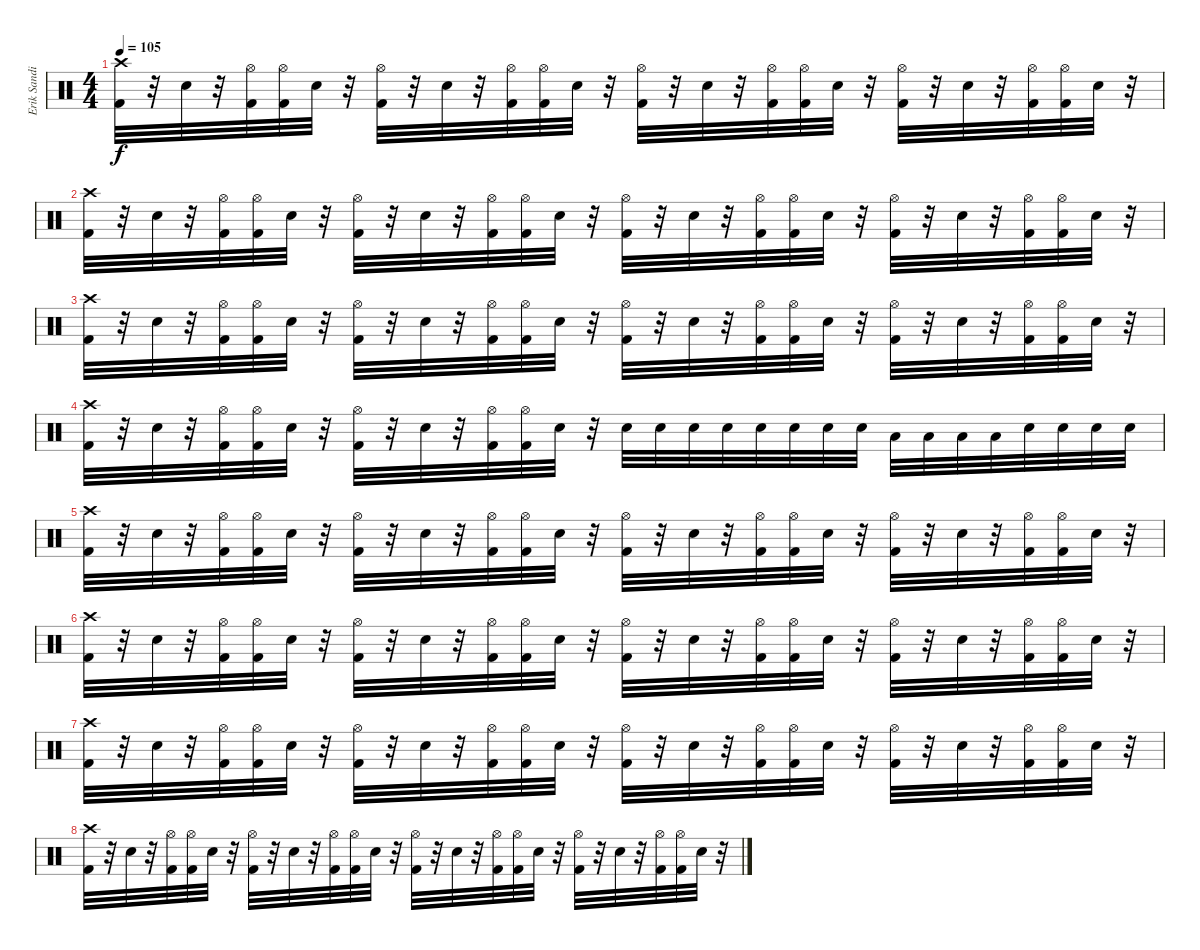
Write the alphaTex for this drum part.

\track ("Erik Sandin" "Erik Sandi") {instrument percussion}
\staff {score}
\articulation defaults
\ts (4 4)
\tempo 105
\clef neutral
\ks c
("Crash high (hit)" "Kick (hit) 2").32{dy f} r.32 "Snare (hit) 2".32 r.32 ("Hi-Hat (open)" "Kick (hit) 2").32 ("Hi-Hat (open)" "Kick (hit) 2").32 "Snare (hit) 2".32 r.32 ("Hi-Hat (open)" "Kick (hit) 2").32 r.32 "Snare (hit) 2".32 r.32 ("Hi-Hat (open)" "Kick (hit) 2").32 ("Hi-Hat (open)" "Kick (hit) 2").32 "Snare (hit) 2".32 r.32 ("Hi-Hat (open)" "Kick (hit) 2").32 r.32 "Snare (hit) 2".32 r.32 ("Hi-Hat (open)" "Kick (hit) 2").32 ("Hi-Hat (open)" "Kick (hit) 2").32 "Snare (hit) 2".32 r.32 ("Hi-Hat (open)" "Kick (hit) 2").32 r.32 "Snare (hit) 2".32 r.32 ("Hi-Hat (open)" "Kick (hit) 2").32 ("Hi-Hat (open)" "Kick (hit) 2").32 "Snare (hit) 2".32 r.32 |
("Crash high (hit)" "Kick (hit) 2").32 r.32 "Snare (hit) 2".32 r.32 ("Hi-Hat (open)" "Kick (hit) 2").32 ("Hi-Hat (open)" "Kick (hit) 2").32 "Snare (hit) 2".32 r.32 ("Hi-Hat (open)" "Kick (hit) 2").32 r.32 "Snare (hit) 2".32 r.32 ("Hi-Hat (open)" "Kick (hit) 2").32 ("Hi-Hat (open)" "Kick (hit) 2").32 "Snare (hit) 2".32 r.32 ("Hi-Hat (open)" "Kick (hit) 2").32 r.32 "Snare (hit) 2".32 r.32 ("Hi-Hat (open)" "Kick (hit) 2").32 ("Hi-Hat (open)" "Kick (hit) 2").32 "Snare (hit) 2".32 r.32 ("Hi-Hat (open)" "Kick (hit) 2").32 r.32 "Snare (hit) 2".32 r.32 ("Hi-Hat (open)" "Kick (hit) 2").32 ("Hi-Hat (open)" "Kick (hit) 2").32 "Snare (hit) 2".32 r.32 |
("Crash high (hit)" "Kick (hit) 2").32 r.32 "Snare (hit) 2".32 r.32 ("Hi-Hat (open)" "Kick (hit) 2").32 ("Hi-Hat (open)" "Kick (hit) 2").32 "Snare (hit) 2".32 r.32 ("Hi-Hat (open)" "Kick (hit) 2").32 r.32 "Snare (hit) 2".32 r.32 ("Hi-Hat (open)" "Kick (hit) 2").32 ("Hi-Hat (open)" "Kick (hit) 2").32 "Snare (hit) 2".32 r.32 ("Hi-Hat (open)" "Kick (hit) 2").32 r.32 "Snare (hit) 2".32 r.32 ("Hi-Hat (open)" "Kick (hit) 2").32 ("Hi-Hat (open)" "Kick (hit) 2").32 "Snare (hit) 2".32 r.32 ("Hi-Hat (open)" "Kick (hit) 2").32 r.32 "Snare (hit) 2".32 r.32 ("Hi-Hat (open)" "Kick (hit) 2").32 ("Hi-Hat (open)" "Kick (hit) 2").32 "Snare (hit) 2".32 r.32 |
("Crash high (hit)" "Kick (hit) 2").32 r.32 "Snare (hit) 2".32 r.32 ("Hi-Hat (open)" "Kick (hit) 2").32 ("Hi-Hat (open)" "Kick (hit) 2").32 "Snare (hit) 2".32 r.32 ("Hi-Hat (open)" "Kick (hit) 2").32 r.32 "Snare (hit) 2".32 r.32 ("Hi-Hat (open)" "Kick (hit) 2").32 ("Hi-Hat (open)" "Kick (hit) 2").32 "Snare (hit) 2".32 r.32 "Snare (hit) 2".32 "Snare (hit) 2".32 "Snare (hit) 2".32 "Snare (hit) 2".32 "Snare (hit) 2".32 "Snare (hit) 2".32 "Snare (hit) 2".32 "Snare (hit) 2".32 "Low Tom (hit)".32 "Low Tom (hit)".32 "Low Tom (hit)".32 "Low Tom (hit)".32 "Snare (hit) 2".32 "Snare (hit) 2".32 "Snare (hit) 2".32 "Snare (hit) 2".32 |
("Crash high (hit)" "Kick (hit) 2").32 r.32 "Snare (hit) 2".32 r.32 ("Hi-Hat (open)" "Kick (hit) 2").32 ("Hi-Hat (open)" "Kick (hit) 2").32 "Snare (hit) 2".32 r.32 ("Hi-Hat (open)" "Kick (hit) 2").32 r.32 "Snare (hit) 2".32 r.32 ("Hi-Hat (open)" "Kick (hit) 2").32 ("Hi-Hat (open)" "Kick (hit) 2").32 "Snare (hit) 2".32 r.32 ("Hi-Hat (open)" "Kick (hit) 2").32 r.32 "Snare (hit) 2".32 r.32 ("Hi-Hat (open)" "Kick (hit) 2").32 ("Hi-Hat (open)" "Kick (hit) 2").32 "Snare (hit) 2".32 r.32 ("Hi-Hat (open)" "Kick (hit) 2").32 r.32 "Snare (hit) 2".32 r.32 ("Hi-Hat (open)" "Kick (hit) 2").32 ("Hi-Hat (open)" "Kick (hit) 2").32 "Snare (hit) 2".32 r.32 |
("Crash high (hit)" "Kick (hit) 2").32 r.32 "Snare (hit) 2".32 r.32 ("Hi-Hat (open)" "Kick (hit) 2").32 ("Hi-Hat (open)" "Kick (hit) 2").32 "Snare (hit) 2".32 r.32 ("Hi-Hat (open)" "Kick (hit) 2").32 r.32 "Snare (hit) 2".32 r.32 ("Hi-Hat (open)" "Kick (hit) 2").32 ("Hi-Hat (open)" "Kick (hit) 2").32 "Snare (hit) 2".32 r.32 ("Hi-Hat (open)" "Kick (hit) 2").32 r.32 "Snare (hit) 2".32 r.32 ("Hi-Hat (open)" "Kick (hit) 2").32 ("Hi-Hat (open)" "Kick (hit) 2").32 "Snare (hit) 2".32 r.32 ("Hi-Hat (open)" "Kick (hit) 2").32 r.32 "Snare (hit) 2".32 r.32 ("Hi-Hat (open)" "Kick (hit) 2").32 ("Hi-Hat (open)" "Kick (hit) 2").32 "Snare (hit) 2".32 r.32 |
("Crash high (hit)" "Kick (hit) 2").32 r.32 "Snare (hit) 2".32 r.32 ("Hi-Hat (open)" "Kick (hit) 2").32 ("Hi-Hat (open)" "Kick (hit) 2").32 "Snare (hit) 2".32 r.32 ("Hi-Hat (open)" "Kick (hit) 2").32 r.32 "Snare (hit) 2".32 r.32 ("Hi-Hat (open)" "Kick (hit) 2").32 ("Hi-Hat (open)" "Kick (hit) 2").32 "Snare (hit) 2".32 r.32 ("Hi-Hat (open)" "Kick (hit) 2").32 r.32 "Snare (hit) 2".32 r.32 ("Hi-Hat (open)" "Kick (hit) 2").32 ("Hi-Hat (open)" "Kick (hit) 2").32 "Snare (hit) 2".32 r.32 ("Hi-Hat (open)" "Kick (hit) 2").32 r.32 "Snare (hit) 2".32 r.32 ("Hi-Hat (open)" "Kick (hit) 2").32 ("Hi-Hat (open)" "Kick (hit) 2").32 "Snare (hit) 2".32 r.32 |
("Crash high (hit)" "Kick (hit) 2").32 r.32 "Snare (hit) 2".32 r.32 ("Hi-Hat (open)" "Kick (hit) 2").32 ("Hi-Hat (open)" "Kick (hit) 2").32 "Snare (hit) 2".32 r.32 ("Hi-Hat (open)" "Kick (hit) 2").32 r.32 "Snare (hit) 2".32 r.32 ("Hi-Hat (open)" "Kick (hit) 2").32 ("Hi-Hat (open)" "Kick (hit) 2").32 "Snare (hit) 2".32 r.32 ("Hi-Hat (open)" "Kick (hit) 2").32 r.32 "Snare (hit) 2".32 r.32 ("Hi-Hat (open)" "Kick (hit) 2").32 ("Hi-Hat (open)" "Kick (hit) 2").32 "Snare (hit) 2".32 r.32 ("Hi-Hat (open)" "Kick (hit) 2").32 r.32 "Snare (hit) 2".32 r.32 ("Hi-Hat (open)" "Kick (hit) 2").32 ("Hi-Hat (open)" "Kick (hit) 2").32 "Snare (hit) 2".32 r.32
